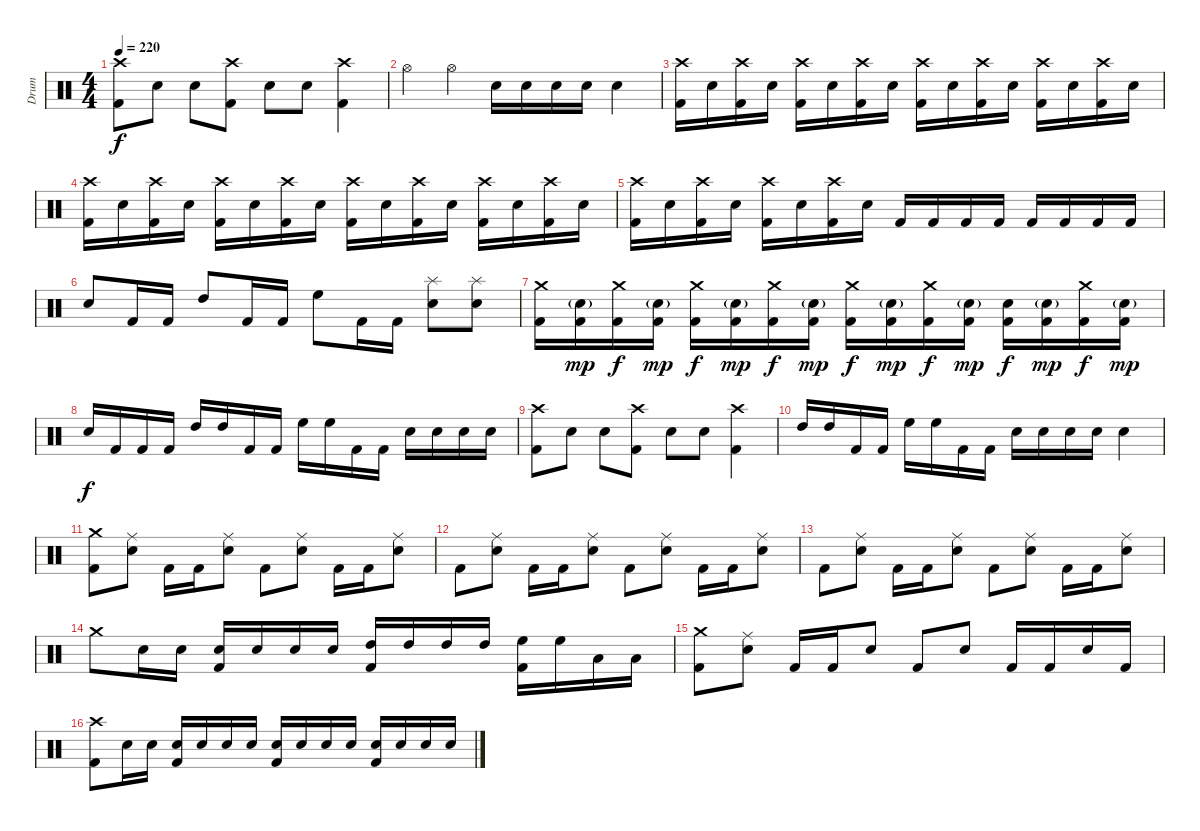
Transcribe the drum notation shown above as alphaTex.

\track ("Drum" "Drum") {instrument percussion}
\staff {score}
\articulation defaults
\ts (4 4)
\tempo 220
\clef neutral
\ks c
("Crash high (hit)" "Kick (hit) 2").8{dy f} "Electric Snare (hit)".8 "Electric Snare (hit)".8 ("Crash high (hit)" "Kick (hit) 2").8 "Electric Snare (hit)".8 "Electric Snare (hit)".8 ("Crash high (hit)" "Kick (hit) 2").4 |
"Hi-Hat (open)".4 "Hi-Hat (open)".4 "Electric Snare (hit)".16 "Electric Snare (hit)".16 "Electric Snare (hit)".16 "Electric Snare (hit)".16 "Electric Snare (hit)".4 |
("Crash high (hit)" "Kick (hit) 2").16 "Electric Snare (hit)".16 ("Crash high (hit)" "Kick (hit) 2").16 "Electric Snare (hit)".16 ("Crash high (hit)" "Kick (hit) 2").16 "Electric Snare (hit)".16 ("Crash high (hit)" "Kick (hit) 2").16 "Electric Snare (hit)".16 ("Crash high (hit)" "Kick (hit) 2").16 "Electric Snare (hit)".16 ("Crash high (hit)" "Kick (hit) 2").16 "Electric Snare (hit)".16 ("Crash high (hit)" "Kick (hit) 2").16 "Electric Snare (hit)".16 ("Crash high (hit)" "Kick (hit) 2").16 "Electric Snare (hit)".16 |
("Crash high (hit)" "Kick (hit) 2").16 "Electric Snare (hit)".16 ("Crash high (hit)" "Kick (hit) 2").16 "Electric Snare (hit)".16 ("Crash high (hit)" "Kick (hit) 2").16 "Electric Snare (hit)".16 ("Crash high (hit)" "Kick (hit) 2").16 "Electric Snare (hit)".16 ("Crash high (hit)" "Kick (hit) 2").16 "Electric Snare (hit)".16 ("Crash high (hit)" "Kick (hit) 2").16 "Electric Snare (hit)".16 ("Crash high (hit)" "Kick (hit) 2").16 "Electric Snare (hit)".16 ("Crash high (hit)" "Kick (hit) 2").16 "Electric Snare (hit)".16 |
("Crash high (hit)" "Kick (hit) 2").16 "Electric Snare (hit)".16 ("Crash high (hit)" "Kick (hit) 2").16 "Electric Snare (hit)".16 ("Crash high (hit)" "Kick (hit) 2").16 "Electric Snare (hit)".16 ("Crash high (hit)" "Kick (hit) 2").16 "Electric Snare (hit)".16 "Kick (hit) 2".16 "Kick (hit) 2".16 "Kick (hit) 2".16 "Kick (hit) 2".16 "Kick (hit) 2".16 "Kick (hit) 2".16 "Kick (hit) 2".16 "Kick (hit) 2".16 |
"Electric Snare (hit)".8 "Kick (hit) 2".16 "Kick (hit) 2".16 "High Tom (hit)".8 "Kick (hit) 2".16 "Kick (hit) 2".16 "High Floor Tom (hit)".8 "Kick (hit) 2".16 "Kick (hit) 2".16 ("Splash (hit)" "Electric Snare (hit)").8 ("Splash (hit)" "Electric Snare (hit)").8 |
("Crash medium (hit)" "Kick (hit) 2").16 ("Electric Snare (hit)"{g} "Kick (hit) 2").16{dy mp} ("Crash medium (hit)" "Kick (hit) 2").16{dy f} ("Electric Snare (hit)"{g} "Kick (hit) 2").16{dy mp} ("Crash medium (hit)" "Kick (hit) 2").16{dy f} ("Electric Snare (hit)"{g} "Kick (hit) 2").16{dy mp} ("Crash medium (hit)" "Kick (hit) 2").16{dy f} ("Electric Snare (hit)"{g} "Kick (hit) 2").16{dy mp} ("Crash medium (hit)" "Kick (hit) 2").16{dy f} ("Electric Snare (hit)"{g} "Kick (hit) 2").16{dy mp} ("Crash medium (hit)" "Kick (hit) 2").16{dy f} ("Electric Snare (hit)"{g} "Kick (hit) 2").16{dy mp} ("Electric Snare (hit)" "Kick (hit) 2").16{dy f} ("Electric Snare (hit)"{g} "Kick (hit) 2").16{dy mp} ("Crash medium (hit)" "Kick (hit) 2").16{dy f} ("Electric Snare (hit)"{g} "Kick (hit) 2").16{dy mp} |
"Electric Snare (hit)".16{dy f} "Kick (hit) 2".16 "Kick (hit) 2".16 "Kick (hit) 2".16 "High Tom (hit)".16 "High Tom (hit)".16 "Kick (hit) 2".16 "Kick (hit) 2".16 "High Floor Tom (hit)".16 "High Floor Tom (hit)".16 "Kick (hit) 2".16 "Kick (hit) 2".16 "Electric Snare (hit)".16 "Electric Snare (hit)".16 "Electric Snare (hit)".16 "Electric Snare (hit)".16 |
("Crash high (hit)" "Kick (hit) 2").8 "Electric Snare (hit)".8 "Electric Snare (hit)".8 ("Crash high (hit)" "Kick (hit) 2").8 "Electric Snare (hit)".8 "Electric Snare (hit)".8 ("Crash high (hit)" "Kick (hit) 2").4 |
"High Tom (hit)".16 "High Tom (hit)".16 "Kick (hit) 2".16 "Kick (hit) 2".16 "High Floor Tom (hit)".16 "High Floor Tom (hit)".16 "Kick (hit) 2".16 "Kick (hit) 2".16 "Electric Snare (hit)".16 "Electric Snare (hit)".16 "Electric Snare (hit)".16 "Electric Snare (hit)".16 "Electric Snare (hit)".4 |
("Crash medium (hit)" "Kick (hit) 2").8 ("Ride (middle)" "Electric Snare (hit)").8 "Kick (hit) 2".16 "Kick (hit) 2".16 ("Ride (middle)" "Electric Snare (hit)").8 "Kick (hit) 2".8 ("Ride (middle)" "Electric Snare (hit)").8 "Kick (hit) 2".16 "Kick (hit) 2".16 ("Ride (middle)" "Electric Snare (hit)").8 |
"Kick (hit) 2".8 ("Ride (middle)" "Electric Snare (hit)").8 "Kick (hit) 2".16 "Kick (hit) 2".16 ("Ride (middle)" "Electric Snare (hit)").8 "Kick (hit) 2".8 ("Ride (middle)" "Electric Snare (hit)").8 "Kick (hit) 2".16 "Kick (hit) 2".16 ("Ride (middle)" "Electric Snare (hit)").8 |
"Kick (hit) 2".8 ("Ride (middle)" "Electric Snare (hit)").8 "Kick (hit) 2".16 "Kick (hit) 2".16 ("Ride (middle)" "Electric Snare (hit)").8 "Kick (hit) 2".8 ("Ride (middle)" "Electric Snare (hit)").8 "Kick (hit) 2".16 "Kick (hit) 2".16 ("Ride (middle)" "Electric Snare (hit)").8 |
"Crash medium (hit)".8 "Electric Snare (hit)".16 "Electric Snare (hit)".16 ("Electric Snare (hit)" "Kick (hit) 2").16 "Electric Snare (hit)".16 "Electric Snare (hit)".16 "Electric Snare (hit)".16 ("High Tom (hit)" "Kick (hit) 2").16 "High Tom (hit)".16 "High Tom (hit)".16 "High Tom (hit)".16 ("High Floor Tom (hit)" "Kick (hit) 2").16 "High Floor Tom (hit)".16 "Low Floor Tom (hit)".16 "Low Floor Tom (hit)".16 |
("Crash medium (hit)" "Kick (hit) 2").8 ("Ride (middle)" "Electric Snare (hit)").8 "Kick (hit) 2".16 "Kick (hit) 2".16 "Electric Snare (hit)".8 "Kick (hit) 2".8 "Electric Snare (hit)".8 "Kick (hit) 2".16 "Kick (hit) 2".16 "Electric Snare (hit)".16 "Kick (hit) 2".16 |
("Crash high (hit)" "Kick (hit) 2").8 "Electric Snare (hit)".16 "Electric Snare (hit)".16 ("Electric Snare (hit)" "Kick (hit) 2").16 "Electric Snare (hit)".16 "Electric Snare (hit)".16 "Electric Snare (hit)".16 ("Electric Snare (hit)" "Kick (hit) 2").16 "Electric Snare (hit)".16 "Electric Snare (hit)".16 "Electric Snare (hit)".16 ("Electric Snare (hit)" "Kick (hit) 2").16 "Electric Snare (hit)".16 "Electric Snare (hit)".16 "Electric Snare (hit)".16
